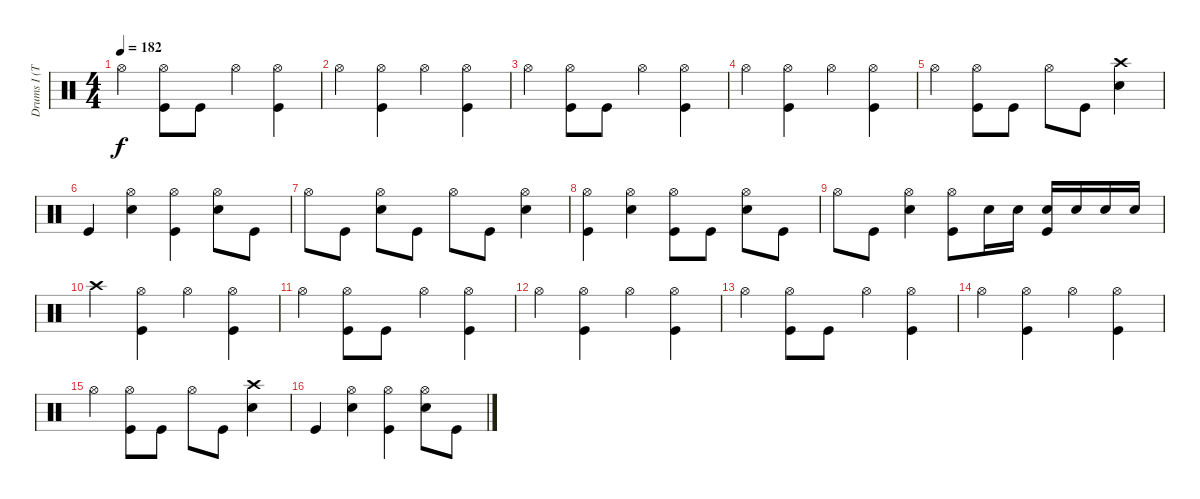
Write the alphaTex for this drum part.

\track ("Drums I (Tainaka Ritsu)" "Drums I (T") {instrument percussion}
\staff {score}
\articulation defaults
\ts (4 4)
\tempo 182
\clef neutral
\ks c "Hi-Hat (open)".4{dy f}
("Hi-Hat (open)" "Kick (hit)").8 "Kick (hit)".8 "Hi-Hat (open)".4 ("Hi-Hat (open)" "Kick (hit)").4 |
"Hi-Hat (open)".4 ("Hi-Hat (open)" "Kick (hit)").4 "Hi-Hat (open)".4 ("Hi-Hat (open)" "Kick (hit)").4 |
"Hi-Hat (open)".4 ("Hi-Hat (open)" "Kick (hit)").8 "Kick (hit)".8 "Hi-Hat (open)".4 ("Hi-Hat (open)" "Kick (hit)").4 |
"Hi-Hat (open)".4 ("Hi-Hat (open)" "Kick (hit)").4 "Hi-Hat (open)".4 ("Hi-Hat (open)" "Kick (hit)").4 |
"Hi-Hat (open)".4 ("Hi-Hat (open)" "Kick (hit)").8 "Kick (hit)".8 "Hi-Hat (open)".8 "Kick (hit)".8 ("Crash high (hit)" "Snare (hit) 2").4 |
"Kick (hit)".4 ("Hi-Hat (open)" "Snare (hit) 2").4 ("Hi-Hat (open)" "Kick (hit)").4 ("Hi-Hat (open)" "Snare (hit) 2").8 "Kick (hit)".8 |
"Hi-Hat (open)".8 "Kick (hit)".8 ("Hi-Hat (open)" "Snare (hit) 2").8 "Kick (hit)".8 "Hi-Hat (open)".8 "Kick (hit)".8 ("Hi-Hat (open)" "Snare (hit) 2").4 |
("Hi-Hat (open)" "Kick (hit)").4 ("Hi-Hat (open)" "Snare (hit) 2").4 ("Hi-Hat (open)" "Kick (hit)").8 "Kick (hit)".8 ("Hi-Hat (open)" "Snare (hit) 2").8 "Kick (hit)".8 |
"Hi-Hat (open)".8 "Kick (hit)".8 ("Hi-Hat (open)" "Snare (hit) 2").4 ("Hi-Hat (open)" "Kick (hit)").8 "Snare (hit) 2".16 "Snare (hit) 2".16 ("Snare (hit) 2" "Kick (hit)").16 "Snare (hit) 2".16 "Snare (hit) 2".16 "Snare (hit) 2".16 |
"Crash high (hit)".4 ("Hi-Hat (open)" "Kick (hit)").4 "Hi-Hat (open)".4 ("Hi-Hat (open)" "Kick (hit)").4 |
"Hi-Hat (open)".4 ("Hi-Hat (open)" "Kick (hit)").8 "Kick (hit)".8 "Hi-Hat (open)".4 ("Hi-Hat (open)" "Kick (hit)").4 |
"Hi-Hat (open)".4 ("Hi-Hat (open)" "Kick (hit)").4 "Hi-Hat (open)".4 ("Hi-Hat (open)" "Kick (hit)").4 |
"Hi-Hat (open)".4 ("Hi-Hat (open)" "Kick (hit)").8 "Kick (hit)".8 "Hi-Hat (open)".4 ("Hi-Hat (open)" "Kick (hit)").4 |
"Hi-Hat (open)".4 ("Hi-Hat (open)" "Kick (hit)").4 "Hi-Hat (open)".4 ("Hi-Hat (open)" "Kick (hit)").4 |
"Hi-Hat (open)".4 ("Hi-Hat (open)" "Kick (hit)").8 "Kick (hit)".8 "Hi-Hat (open)".8 "Kick (hit)".8 ("Crash high (hit)" "Snare (hit) 2").4 |
"Kick (hit)".4 ("Hi-Hat (open)" "Snare (hit) 2").4 ("Hi-Hat (open)" "Kick (hit)").4 ("Hi-Hat (open)" "Snare (hit) 2").8 "Kick (hit)".8
